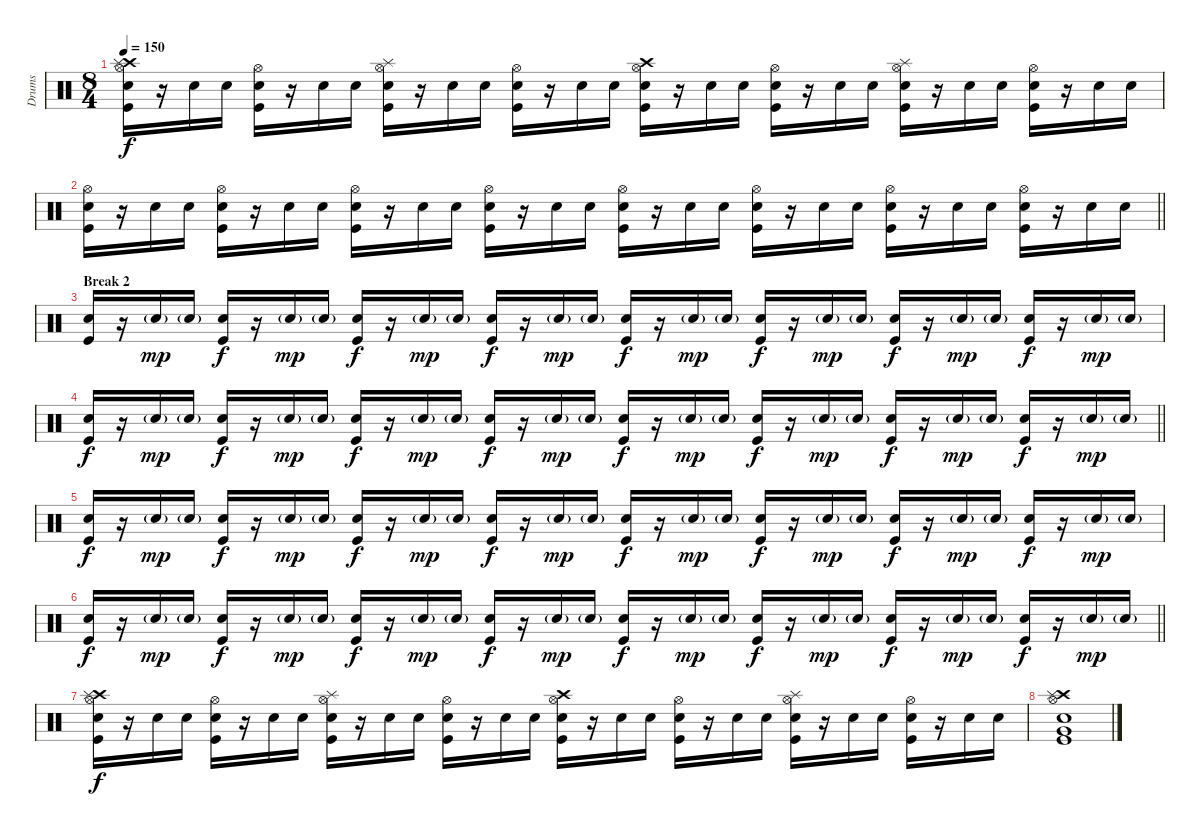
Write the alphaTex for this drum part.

\track ("Drums" "Drums") {instrument percussion}
\staff {score}
\articulation defaults
\ts (8 4)
\tempo 150
\clef neutral
\ks c
("Crash high (hit)" "Splash (hit)" "Hi-Hat (open)" "Electric Snare (hit)" "Kick (hit)").16{dy f} r.16 "Electric Snare (hit)".16 "Electric Snare (hit)".16 ("Hi-Hat (open)" "Electric Snare (hit)" "Kick (hit)").16 r.16 "Electric Snare (hit)".16 "Electric Snare (hit)".16 ("Splash (hit)" "Hi-Hat (open)" "Electric Snare (hit)" "Kick (hit)").16 r.16 "Electric Snare (hit)".16 "Electric Snare (hit)".16 ("Hi-Hat (open)" "Electric Snare (hit)" "Kick (hit)").16 r.16 "Electric Snare (hit)".16 "Electric Snare (hit)".16 ("Crash high (hit)" "Hi-Hat (open)" "Electric Snare (hit)" "Kick (hit)").16 r.16 "Electric Snare (hit)".16 "Electric Snare (hit)".16 ("Hi-Hat (open)" "Electric Snare (hit)" "Kick (hit)").16 r.16 "Electric Snare (hit)".16 "Electric Snare (hit)".16 ("Splash (hit)" "Hi-Hat (open)" "Electric Snare (hit)" "Kick (hit)").16 r.16 "Electric Snare (hit)".16 "Electric Snare (hit)".16 ("Hi-Hat (open)" "Electric Snare (hit)" "Kick (hit)").16 r.16 "Electric Snare (hit)".16 "Electric Snare (hit)".16 |
\barLineRight lightlight
("Hi-Hat (open)" "Electric Snare (hit)" "Kick (hit)").16 r.16 "Electric Snare (hit)".16 "Electric Snare (hit)".16 ("Hi-Hat (open)" "Electric Snare (hit)" "Kick (hit)").16 r.16 "Electric Snare (hit)".16 "Electric Snare (hit)".16 ("Hi-Hat (open)" "Electric Snare (hit)" "Kick (hit)").16 r.16 "Electric Snare (hit)".16 "Electric Snare (hit)".16 ("Hi-Hat (open)" "Electric Snare (hit)" "Kick (hit)").16 r.16 "Electric Snare (hit)".16 "Electric Snare (hit)".16 ("Hi-Hat (open)" "Electric Snare (hit)" "Kick (hit)").16 r.16 "Electric Snare (hit)".16 "Electric Snare (hit)".16 ("Hi-Hat (open)" "Electric Snare (hit)" "Kick (hit)").16 r.16 "Electric Snare (hit)".16 "Electric Snare (hit)".16 ("Hi-Hat (open)" "Electric Snare (hit)" "Kick (hit)").16 r.16 "Electric Snare (hit)".16 "Electric Snare (hit)".16 ("Hi-Hat (open)" "Electric Snare (hit)" "Kick (hit)").16 r.16 "Electric Snare (hit)".16 "Electric Snare (hit)".16 |
\section ("" "Break 2")
("Electric Snare (hit)" "Kick (hit)").16 r.16 "Electric Snare (hit)"{g}.16{dy mp} "Electric Snare (hit)"{g}.16 ("Electric Snare (hit)" "Kick (hit)").16{dy f} r.16 "Electric Snare (hit)"{g}.16{dy mp} "Electric Snare (hit)"{g}.16 ("Electric Snare (hit)" "Kick (hit)").16{dy f} r.16 "Electric Snare (hit)"{g}.16{dy mp} "Electric Snare (hit)"{g}.16 ("Electric Snare (hit)" "Kick (hit)").16{dy f} r.16 "Electric Snare (hit)"{g}.16{dy mp} "Electric Snare (hit)"{g}.16 ("Electric Snare (hit)" "Kick (hit)").16{dy f} r.16 "Electric Snare (hit)"{g}.16{dy mp} "Electric Snare (hit)"{g}.16 ("Electric Snare (hit)" "Kick (hit)").16{dy f} r.16 "Electric Snare (hit)"{g}.16{dy mp} "Electric Snare (hit)"{g}.16 ("Electric Snare (hit)" "Kick (hit)").16{dy f} r.16 "Electric Snare (hit)"{g}.16{dy mp} "Electric Snare (hit)"{g}.16 ("Electric Snare (hit)" "Kick (hit)").16{dy f} r.16 "Electric Snare (hit)"{g}.16{dy mp} "Electric Snare (hit)"{g}.16 |
\barLineRight lightlight
("Electric Snare (hit)" "Kick (hit)").16{dy f} r.16 "Electric Snare (hit)"{g}.16{dy mp} "Electric Snare (hit)"{g}.16 ("Electric Snare (hit)" "Kick (hit)").16{dy f} r.16 "Electric Snare (hit)"{g}.16{dy mp} "Electric Snare (hit)"{g}.16 ("Electric Snare (hit)" "Kick (hit)").16{dy f} r.16 "Electric Snare (hit)"{g}.16{dy mp} "Electric Snare (hit)"{g}.16 ("Electric Snare (hit)" "Kick (hit)").16{dy f} r.16 "Electric Snare (hit)"{g}.16{dy mp} "Electric Snare (hit)"{g}.16 ("Electric Snare (hit)" "Kick (hit)").16{dy f} r.16 "Electric Snare (hit)"{g}.16{dy mp} "Electric Snare (hit)"{g}.16 ("Electric Snare (hit)" "Kick (hit)").16{dy f} r.16 "Electric Snare (hit)"{g}.16{dy mp} "Electric Snare (hit)"{g}.16 ("Electric Snare (hit)" "Kick (hit)").16{dy f} r.16 "Electric Snare (hit)"{g}.16{dy mp} "Electric Snare (hit)"{g}.16 ("Electric Snare (hit)" "Kick (hit)").16{dy f} r.16 "Electric Snare (hit)"{g}.16{dy mp} "Electric Snare (hit)"{g}.16 |
("Electric Snare (hit)" "Kick (hit)").16{dy f} r.16 "Electric Snare (hit)"{g}.16{dy mp} "Electric Snare (hit)"{g}.16 ("Electric Snare (hit)" "Kick (hit)").16{dy f} r.16 "Electric Snare (hit)"{g}.16{dy mp} "Electric Snare (hit)"{g}.16 ("Electric Snare (hit)" "Kick (hit)").16{dy f} r.16 "Electric Snare (hit)"{g}.16{dy mp} "Electric Snare (hit)"{g}.16 ("Electric Snare (hit)" "Kick (hit)").16{dy f} r.16 "Electric Snare (hit)"{g}.16{dy mp} "Electric Snare (hit)"{g}.16 ("Electric Snare (hit)" "Kick (hit)").16{dy f} r.16 "Electric Snare (hit)"{g}.16{dy mp} "Electric Snare (hit)"{g}.16 ("Electric Snare (hit)" "Kick (hit)").16{dy f} r.16 "Electric Snare (hit)"{g}.16{dy mp} "Electric Snare (hit)"{g}.16 ("Electric Snare (hit)" "Kick (hit)").16{dy f} r.16 "Electric Snare (hit)"{g}.16{dy mp} "Electric Snare (hit)"{g}.16 ("Electric Snare (hit)" "Kick (hit)").16{dy f} r.16 "Electric Snare (hit)"{g}.16{dy mp} "Electric Snare (hit)"{g}.16 |
\barLineRight lightlight
("Electric Snare (hit)" "Kick (hit)").16{dy f} r.16 "Electric Snare (hit)"{g}.16{dy mp} "Electric Snare (hit)"{g}.16 ("Electric Snare (hit)" "Kick (hit)").16{dy f} r.16 "Electric Snare (hit)"{g}.16{dy mp} "Electric Snare (hit)"{g}.16 ("Electric Snare (hit)" "Kick (hit)").16{dy f} r.16 "Electric Snare (hit)"{g}.16{dy mp} "Electric Snare (hit)"{g}.16 ("Electric Snare (hit)" "Kick (hit)").16{dy f} r.16 "Electric Snare (hit)"{g}.16{dy mp} "Electric Snare (hit)"{g}.16 ("Electric Snare (hit)" "Kick (hit)").16{dy f} r.16 "Electric Snare (hit)"{g}.16{dy mp} "Electric Snare (hit)"{g}.16 ("Electric Snare (hit)" "Kick (hit)").16{dy f} r.16 "Electric Snare (hit)"{g}.16{dy mp} "Electric Snare (hit)"{g}.16 ("Electric Snare (hit)" "Kick (hit)").16{dy f} r.16 "Electric Snare (hit)"{g}.16{dy mp} "Electric Snare (hit)"{g}.16 ("Electric Snare (hit)" "Kick (hit)").16{dy f} r.16 "Electric Snare (hit)"{g}.16{dy mp} "Electric Snare (hit)"{g}.16 |
("Crash high (hit)" "Splash (hit)" "Hi-Hat (open)" "Electric Snare (hit)" "Kick (hit)").16{dy f} r.16 "Electric Snare (hit)".16 "Electric Snare (hit)".16 ("Hi-Hat (open)" "Electric Snare (hit)" "Kick (hit)").16 r.16 "Electric Snare (hit)".16 "Electric Snare (hit)".16 ("Splash (hit)" "Hi-Hat (open)" "Electric Snare (hit)" "Kick (hit)").16 r.16 "Electric Snare (hit)".16 "Electric Snare (hit)".16 ("Hi-Hat (open)" "Electric Snare (hit)" "Kick (hit)").16 r.16 "Electric Snare (hit)".16 "Electric Snare (hit)".16 ("Crash high (hit)" "Hi-Hat (open)" "Electric Snare (hit)" "Kick (hit)").16 r.16 "Electric Snare (hit)".16 "Electric Snare (hit)".16 ("Hi-Hat (open)" "Electric Snare (hit)" "Kick (hit)").16 r.16 "Electric Snare (hit)".16 "Electric Snare (hit)".16 ("Splash (hit)" "Hi-Hat (open)" "Electric Snare (hit)" "Kick (hit)").16 r.16 "Electric Snare (hit)".16 "Electric Snare (hit)".16 ("Hi-Hat (open)" "Electric Snare (hit)" "Kick (hit)").16 r.16 "Electric Snare (hit)".16 "Electric Snare (hit)".16 |
("Crash high (hit)" "Splash (hit)" "Hi-Hat (open)" "Very Low Tom (hit)" "Electric Snare (hit)" "Kick (hit)").1
